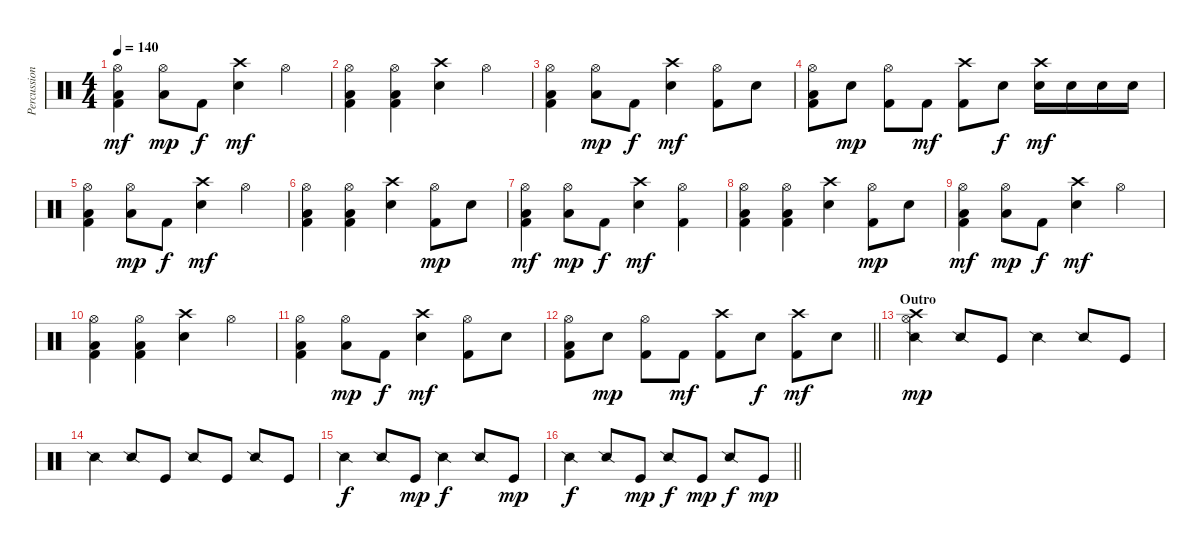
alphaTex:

\track ("Percussion" "Percussion") {instrument percussion}
\staff {score}
\articulation defaults
\ts (4 4)
\tempo 140
\clef neutral
\ks c
("Hi-Hat (open)" "Kick (hit) 2" "Low Floor Tom (hit)").4{dy mf} ("Hi-Hat (open)" "Low Floor Tom (hit)").8{dy mp} "Kick (hit) 2".8{dy f} ("Crash high (hit)" "Snare (hit) 2").4{dy mf} "Hi-Hat (open)".4 |
("Hi-Hat (open)" "Kick (hit) 2" "Low Floor Tom (hit)").4 ("Hi-Hat (open)" "Kick (hit) 2" "Low Floor Tom (hit)").4 ("Crash high (hit)" "Snare (hit) 2").4 "Hi-Hat (open)".4 |
("Hi-Hat (open)" "Kick (hit) 2" "Low Floor Tom (hit)").4 ("Hi-Hat (open)" "Low Floor Tom (hit)").8{dy mp} "Kick (hit) 2".8{dy f} ("Crash high (hit)" "Snare (hit) 2").4{dy mf} ("Hi-Hat (open)" "Kick (hit) 2").8 "Snare (hit) 2".8 |
("Hi-Hat (open)" "Kick (hit) 2" "Low Floor Tom (hit)").8 "Snare (hit) 2".8{dy mp} ("Hi-Hat (open)" "Kick (hit) 2").8 "Kick (hit) 2".8{dy mf} ("Crash high (hit)" "Kick (hit) 2").8 "Snare (hit) 2".8{dy f} ("Crash high (hit)" "Snare (hit) 2").16{dy mf} "Snare (hit) 2".16 "Snare (hit) 2".16 "Snare (hit) 2".16 |
("Hi-Hat (open)" "Kick (hit) 2" "Low Floor Tom (hit)").4 ("Hi-Hat (open)" "Low Floor Tom (hit)").8{dy mp} "Kick (hit) 2".8{dy f} ("Crash high (hit)" "Snare (hit) 2").4{dy mf} "Hi-Hat (open)".4 |
("Hi-Hat (open)" "Kick (hit) 2" "Low Floor Tom (hit)").4 ("Hi-Hat (open)" "Kick (hit) 2" "Low Floor Tom (hit)").4 ("Crash high (hit)" "Snare (hit) 2").4 ("Hi-Hat (open)" "Kick (hit) 2").8{dy mp} "Snare (hit) 2".8 |
("Hi-Hat (open)" "Kick (hit) 2" "Low Floor Tom (hit)").4{dy mf} ("Hi-Hat (open)" "Low Floor Tom (hit)").8{dy mp} "Kick (hit) 2".8{dy f} ("Crash high (hit)" "Snare (hit) 2").4{dy mf} ("Hi-Hat (open)" "Kick (hit) 2").4 |
("Hi-Hat (open)" "Kick (hit) 2" "Low Floor Tom (hit)").4 ("Hi-Hat (open)" "Kick (hit) 2" "Low Floor Tom (hit)").4 ("Crash high (hit)" "Snare (hit) 2").4 ("Hi-Hat (open)" "Kick (hit) 2").8{dy mp} "Snare (hit) 2".8 |
("Hi-Hat (open)" "Kick (hit) 2" "Low Floor Tom (hit)").4{dy mf} ("Hi-Hat (open)" "Low Floor Tom (hit)").8{dy mp} "Kick (hit) 2".8{dy f} ("Crash high (hit)" "Snare (hit) 2").4{dy mf} "Hi-Hat (open)".4 |
("Hi-Hat (open)" "Kick (hit) 2" "Low Floor Tom (hit)").4 ("Hi-Hat (open)" "Kick (hit) 2" "Low Floor Tom (hit)").4 ("Crash high (hit)" "Snare (hit) 2").4 "Hi-Hat (open)".4 |
("Hi-Hat (open)" "Kick (hit) 2" "Low Floor Tom (hit)").4 ("Hi-Hat (open)" "Low Floor Tom (hit)").8{dy mp} "Kick (hit) 2".8{dy f} ("Crash high (hit)" "Snare (hit) 2").4{dy mf} ("Hi-Hat (open)" "Kick (hit) 2").8 "Snare (hit) 2".8 |
\barLineRight lightlight
("Hi-Hat (open)" "Kick (hit) 2" "Low Floor Tom (hit)").8 "Snare (hit) 2".8{dy mp} ("Hi-Hat (open)" "Kick (hit) 2").8 "Kick (hit) 2".8{dy mf} ("Crash high (hit)" "Kick (hit) 2").8 "Snare (hit) 2".8{dy f} ("Crash high (hit)" "Kick (hit) 2").8{dy mf} "Snare (hit) 2".8 |
\section ("" "Outro")
("Snare (side stick) 2" "Crash high (hit)" "Hi-Hat (open)").4{dy mp} "Snare (side stick) 2".8 "Kick (hit)".8 "Snare (side stick) 2".4 "Snare (side stick) 2".8 "Kick (hit)".8 |
"Snare (side stick) 2".4 "Snare (side stick) 2".8 "Kick (hit)".8 "Snare (side stick) 2".8 "Kick (hit)".8 "Snare (side stick) 2".8 "Kick (hit)".8 |
"Snare (side stick) 2".4{dy f} "Snare (side stick) 2".8 "Kick (hit)".8{dy mp} "Snare (side stick) 2".4{dy f} "Snare (side stick) 2".8 "Kick (hit)".8{dy mp} |
\barLineRight lightlight "Snare (side stick) 2".4{dy f} "Snare (side stick) 2".8 "Kick (hit)".8{dy mp} "Snare (side stick) 2".8{dy f} "Kick (hit)".8{dy mp} "Snare (side stick) 2".8{dy f} "Kick (hit)".8{dy mp}
